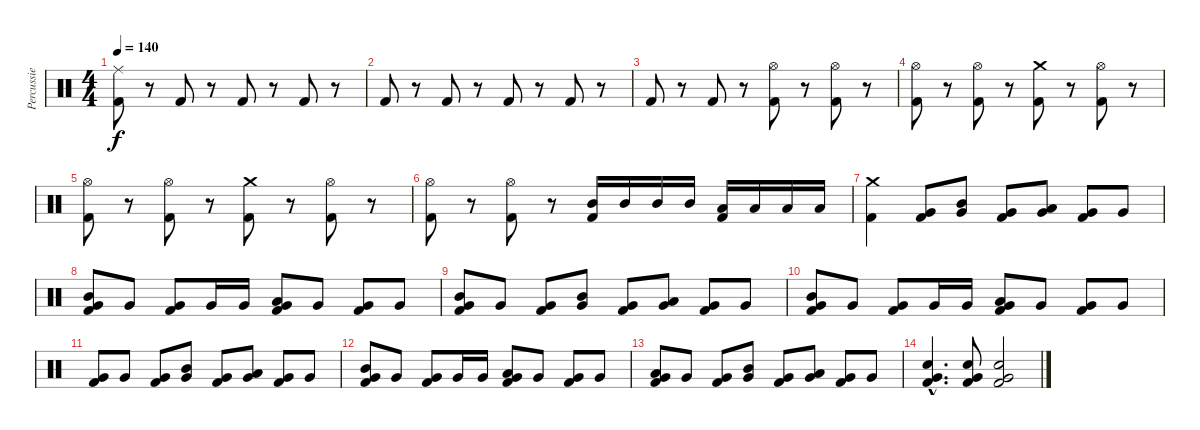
\track ("Percussie" "Percussie") {instrument percussion}
\staff {score}
\articulation defaults
\ts (4 4)
\tempo 140
\clef neutral
\ks c
("Ride (middle)" "Kick (hit) 2").8{dy f} r.8 "Kick (hit) 2".8 r.8 "Kick (hit) 2".8 r.8 "Kick (hit) 2".8 r.8 |
"Kick (hit) 2".8 r.8 "Kick (hit) 2".8 r.8 "Kick (hit) 2".8 r.8 "Kick (hit) 2".8 r.8 |
"Kick (hit) 2".8 r.8 "Kick (hit) 2".8 r.8 ("Hi-Hat (open)" "Kick (hit) 2").8 r.8 ("Hi-Hat (open)" "Kick (hit) 2").8 r.8 |
("Hi-Hat (open)" "Kick (hit) 2").8 r.8 ("Hi-Hat (open)" "Kick (hit) 2").8 r.8 ("Crash medium (hit)" "Kick (hit) 2").8 r.8 ("Hi-Hat (open)" "Kick (hit) 2").8 r.8 |
("Hi-Hat (open)" "Kick (hit) 2").8 r.8 ("Hi-Hat (open)" "Kick (hit) 2").8 r.8 ("Crash medium (hit)" "Kick (hit) 2").8 r.8 ("Hi-Hat (open)" "Kick (hit) 2").8 r.8 |
("Hi-Hat (open)" "Kick (hit) 2").8 r.8 ("Hi-Hat (open)" "Kick (hit) 2").8 r.8 ("Mid Tom (hit)" "Kick (hit) 2").16 "Mid Tom (hit)".16 "Mid Tom (hit)".16 "Mid Tom (hit)".16 ("Low Tom (hit)" "Kick (hit) 2").16 "Low Tom (hit)".16 "Low Tom (hit)".16 "Low Tom (hit)".16 |
("Crash medium (hit)" "Kick (hit) 2").4 ("Very Low Tom (hit)" "Kick (hit) 2").8 ("Mid Tom (hit)" "Very Low Tom (hit)").8 ("Very Low Tom (hit)" "Kick (hit) 2").8 ("Low Tom (hit)" "Very Low Tom (hit)").8 ("Very Low Tom (hit)" "Kick (hit) 2").8 "Very Low Tom (hit)".8 |
("Mid Tom (hit)" "Very Low Tom (hit)" "Kick (hit) 2").8 "Very Low Tom (hit)".8 ("Very Low Tom (hit)" "Kick (hit) 2").8 "Very Low Tom (hit)".16 "Very Low Tom (hit)".16 ("Low Tom (hit)" "Very Low Tom (hit)" "Kick (hit) 2").8 "Very Low Tom (hit)".8 ("Very Low Tom (hit)" "Kick (hit) 2").8 "Very Low Tom (hit)".8 |
("Mid Tom (hit)" "Very Low Tom (hit)" "Kick (hit) 2").8 "Very Low Tom (hit)".8 ("Very Low Tom (hit)" "Kick (hit) 2").8 ("Mid Tom (hit)" "Very Low Tom (hit)").8 ("Very Low Tom (hit)" "Kick (hit) 2").8 ("Low Tom (hit)" "Very Low Tom (hit)").8 ("Very Low Tom (hit)" "Kick (hit) 2").8 "Very Low Tom (hit)".8 |
("Mid Tom (hit)" "Very Low Tom (hit)" "Kick (hit) 2").8 "Very Low Tom (hit)".8 ("Very Low Tom (hit)" "Kick (hit) 2").8 "Very Low Tom (hit)".16 "Very Low Tom (hit)".16 ("Low Tom (hit)" "Very Low Tom (hit)" "Kick (hit) 2").8 "Very Low Tom (hit)".8 ("Very Low Tom (hit)" "Kick (hit) 2").8 "Very Low Tom (hit)".8 |
("Very Low Tom (hit)" "Kick (hit) 2").8 "Very Low Tom (hit)".8 ("Very Low Tom (hit)" "Kick (hit) 2").8 ("Mid Tom (hit)" "Very Low Tom (hit)").8 ("Very Low Tom (hit)" "Kick (hit) 2").8 ("Low Tom (hit)" "Very Low Tom (hit)").8 ("Very Low Tom (hit)" "Kick (hit) 2").8 "Very Low Tom (hit)".8 |
("Mid Tom (hit)" "Very Low Tom (hit)" "Kick (hit) 2").8 "Very Low Tom (hit)".8 ("Very Low Tom (hit)" "Kick (hit) 2").8 "Very Low Tom (hit)".16 "Very Low Tom (hit)".16 ("Low Tom (hit)" "Very Low Tom (hit)" "Kick (hit) 2").8 "Very Low Tom (hit)".8 ("Very Low Tom (hit)" "Kick (hit) 2").8 "Very Low Tom (hit)".8 |
("Low Tom (hit)" "Very Low Tom (hit)" "Kick (hit) 2").8 "Very Low Tom (hit)".8 ("Very Low Tom (hit)" "Kick (hit) 2").8 ("Mid Tom (hit)" "Very Low Tom (hit)").8 ("Very Low Tom (hit)" "Kick (hit) 2").8 ("Low Tom (hit)" "Very Low Tom (hit)").8 ("Very Low Tom (hit)" "Kick (hit) 2").8 "Very Low Tom (hit)".8 |
("Electric Snare (hit)"{hac} "Very Low Tom (hit)"{hac} "Kick (hit) 2"{hac}).4{d} ("Electric Snare (hit)" "Very Low Tom (hit)" "Kick (hit) 2").8 ("Electric Snare (hit)" "Very Low Tom (hit)" "Kick (hit) 2").2
